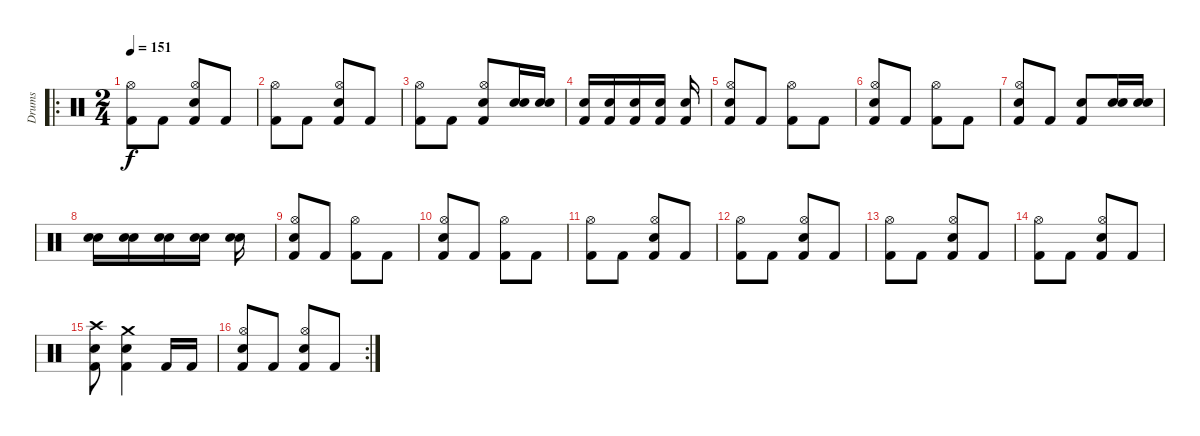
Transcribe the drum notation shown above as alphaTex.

\track ("Drums" "Drums") {instrument percussion}
\staff {score}
\articulation defaults
\ro
\ts (2 4)
\tempo 151
\clef neutral
\ks c
("Kick (hit) 2" "Hi-Hat (open)").8{dy f} "Kick (hit) 2".8 ("Kick (hit) 2" "Hi-Hat (open)" "Snare (hit) 2").8 "Kick (hit) 2".8 |
("Kick (hit) 2" "Hi-Hat (open)").8 "Kick (hit) 2".8 ("Kick (hit) 2" "Hi-Hat (open)" "Snare (hit) 2").8 "Kick (hit) 2".8 |
("Kick (hit) 2" "Hi-Hat (open)").8 "Kick (hit) 2".8 ("Kick (hit) 2" "Hi-Hat (open)" "Snare (hit) 2").8 ("Electric Snare (hit)" "Snare (hit) 2").16 ("Electric Snare (hit)" "Snare (hit) 2").16 |
("Electric Snare (hit)" "Kick (hit) 2").16 ("Electric Snare (hit)" "Kick (hit) 2").16 ("Electric Snare (hit)" "Kick (hit) 2").16 ("Electric Snare (hit)" "Kick (hit) 2").16 ("Electric Snare (hit)" "Kick (hit) 2").16 |
("Kick (hit) 2" "Snare (hit) 2" "Hi-Hat (open)").8 "Kick (hit) 2".8 ("Kick (hit) 2" "Hi-Hat (open)").8 "Kick (hit) 2".8 |
("Kick (hit) 2" "Snare (hit) 2" "Hi-Hat (open)").8 "Kick (hit) 2".8 ("Kick (hit) 2" "Hi-Hat (open)").8 "Kick (hit) 2".8 |
("Kick (hit) 2" "Snare (hit) 2" "Hi-Hat (open)").8 "Kick (hit) 2".8 ("Kick (hit) 2" "Snare (hit) 2").8 ("Snare (hit) 2" "Electric Snare (hit)").16 ("Snare (hit) 2" "Electric Snare (hit)").16 |
("Snare (hit) 2" "Electric Snare (hit)").16 ("Snare (hit) 2" "Electric Snare (hit)").16 ("Snare (hit) 2" "Electric Snare (hit)").16 ("Snare (hit) 2" "Electric Snare (hit)").16 ("Snare (hit) 2" "Electric Snare (hit)").16 |
("Kick (hit) 2" "Snare (hit) 2" "Hi-Hat (open)").8 "Kick (hit) 2".8 ("Kick (hit) 2" "Hi-Hat (open)").8 "Kick (hit) 2".8 |
("Kick (hit) 2" "Snare (hit) 2" "Hi-Hat (open)").8 "Kick (hit) 2".8 ("Kick (hit) 2" "Hi-Hat (open)").8 "Kick (hit) 2".8 |
("Kick (hit) 2" "Hi-Hat (open)").8 "Kick (hit) 2".8 ("Kick (hit) 2" "Hi-Hat (open)" "Snare (hit) 2").8 "Kick (hit) 2".8 |
("Kick (hit) 2" "Hi-Hat (open)").8 "Kick (hit) 2".8 ("Kick (hit) 2" "Hi-Hat (open)" "Snare (hit) 2").8 "Kick (hit) 2".8 |
("Kick (hit) 2" "Hi-Hat (open)").8 "Kick (hit) 2".8 ("Kick (hit) 2" "Hi-Hat (open)" "Snare (hit) 2").8 "Kick (hit) 2".8 |
("Kick (hit) 2" "Hi-Hat (open)").8 "Kick (hit) 2".8 ("Kick (hit) 2" "Hi-Hat (open)" "Snare (hit) 2").8 "Kick (hit) 2".8 |
("Crash high (hit)" "Kick (hit) 2" "Snare (hit) 2").8 ("Crash medium (hit)" "Kick (hit) 2" "Snare (hit) 2").4 "Kick (hit) 2".16 "Kick (hit) 2".16 |
\rc 2
("Kick (hit) 2" "Snare (hit) 2" "Hi-Hat (open)").8 "Kick (hit) 2".8 ("Kick (hit) 2" "Hi-Hat (open)" "Snare (hit) 2").8 "Kick (hit) 2".8
